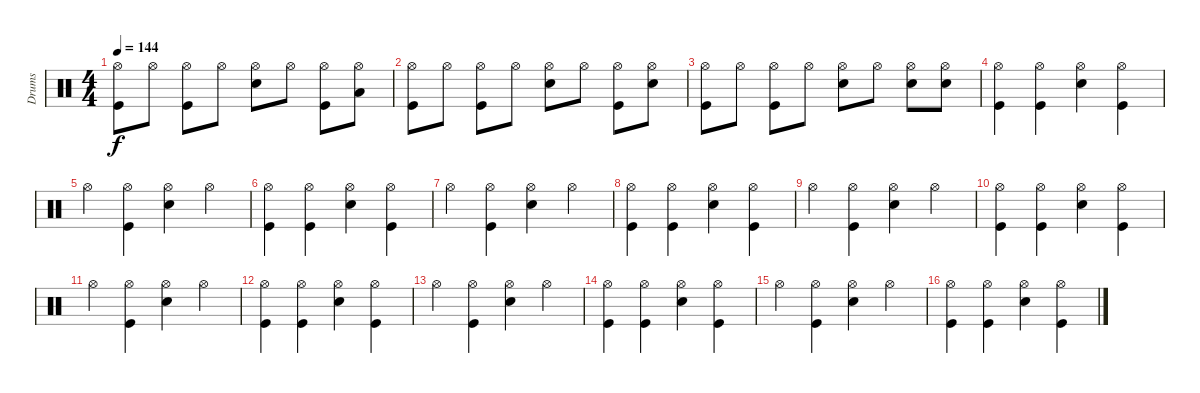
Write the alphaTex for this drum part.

\track ("Drums               " "Drums     ") {instrument percussion}
\staff {score}
\articulation defaults
\ts (4 4)
\tempo 144
\clef neutral
\ks c
("Kick (hit)" "Hi-Hat (open)").8{dy f} "Hi-Hat (open)".8 ("Kick (hit)" "Hi-Hat (open)").8 "Hi-Hat (open)".8 ("Snare (hit) 2" "Hi-Hat (open)").8 "Hi-Hat (open)".8 ("Kick (hit)" "Hi-Hat (open)").8 ("Low Tom (hit)" "Hi-Hat (open)").8 |
("Kick (hit)" "Hi-Hat (open)").8 "Hi-Hat (open)".8 ("Kick (hit)" "Hi-Hat (open)").8 "Hi-Hat (open)".8 ("Snare (hit) 2" "Hi-Hat (open)").8 "Hi-Hat (open)".8 ("Hi-Hat (open)" "Kick (hit)").8 ("Snare (hit) 2" "Hi-Hat (open)").8 |
("Kick (hit)" "Hi-Hat (open)").8 "Hi-Hat (open)".8 ("Kick (hit)" "Hi-Hat (open)").8 "Hi-Hat (open)".8 ("Snare (hit) 2" "Hi-Hat (open)").8 "Hi-Hat (open)".8 ("Hi-Hat (open)" "Snare (hit) 2").8 ("Snare (hit) 2" "Hi-Hat (open)").8 |
("Kick (hit)" "Hi-Hat (open)").4 ("Kick (hit)" "Hi-Hat (open)").4 ("Snare (hit) 2" "Hi-Hat (open)").4 ("Kick (hit)" "Hi-Hat (open)").4 |
"Hi-Hat (open)".4 ("Kick (hit)" "Hi-Hat (open)").4 ("Snare (hit) 2" "Hi-Hat (open)").4 "Hi-Hat (open)".4 |
("Kick (hit)" "Hi-Hat (open)").4 ("Kick (hit)" "Hi-Hat (open)").4 ("Snare (hit) 2" "Hi-Hat (open)").4 ("Kick (hit)" "Hi-Hat (open)").4 |
"Hi-Hat (open)".4 ("Kick (hit)" "Hi-Hat (open)").4 ("Snare (hit) 2" "Hi-Hat (open)").4 "Hi-Hat (open)".4 |
("Kick (hit)" "Hi-Hat (open)").4 ("Kick (hit)" "Hi-Hat (open)").4 ("Snare (hit) 2" "Hi-Hat (open)").4 ("Kick (hit)" "Hi-Hat (open)").4 |
"Hi-Hat (open)".4 ("Kick (hit)" "Hi-Hat (open)").4 ("Snare (hit) 2" "Hi-Hat (open)").4 "Hi-Hat (open)".4 |
("Kick (hit)" "Hi-Hat (open)").4 ("Kick (hit)" "Hi-Hat (open)").4 ("Snare (hit) 2" "Hi-Hat (open)").4 ("Kick (hit)" "Hi-Hat (open)").4 |
"Hi-Hat (open)".4 ("Kick (hit)" "Hi-Hat (open)").4 ("Snare (hit) 2" "Hi-Hat (open)").4 "Hi-Hat (open)".4 |
("Kick (hit)" "Hi-Hat (open)").4 ("Kick (hit)" "Hi-Hat (open)").4 ("Snare (hit) 2" "Hi-Hat (open)").4 ("Kick (hit)" "Hi-Hat (open)").4 |
"Hi-Hat (open)".4 ("Kick (hit)" "Hi-Hat (open)").4 ("Snare (hit) 2" "Hi-Hat (open)").4 "Hi-Hat (open)".4 |
("Kick (hit)" "Hi-Hat (open)").4 ("Kick (hit)" "Hi-Hat (open)").4 ("Snare (hit) 2" "Hi-Hat (open)").4 ("Kick (hit)" "Hi-Hat (open)").4 |
"Hi-Hat (open)".4 ("Kick (hit)" "Hi-Hat (open)").4 ("Snare (hit) 2" "Hi-Hat (open)").4 "Hi-Hat (open)".4 |
("Kick (hit)" "Hi-Hat (open)").4 ("Kick (hit)" "Hi-Hat (open)").4 ("Snare (hit) 2" "Hi-Hat (open)").4 ("Kick (hit)" "Hi-Hat (open)").4
